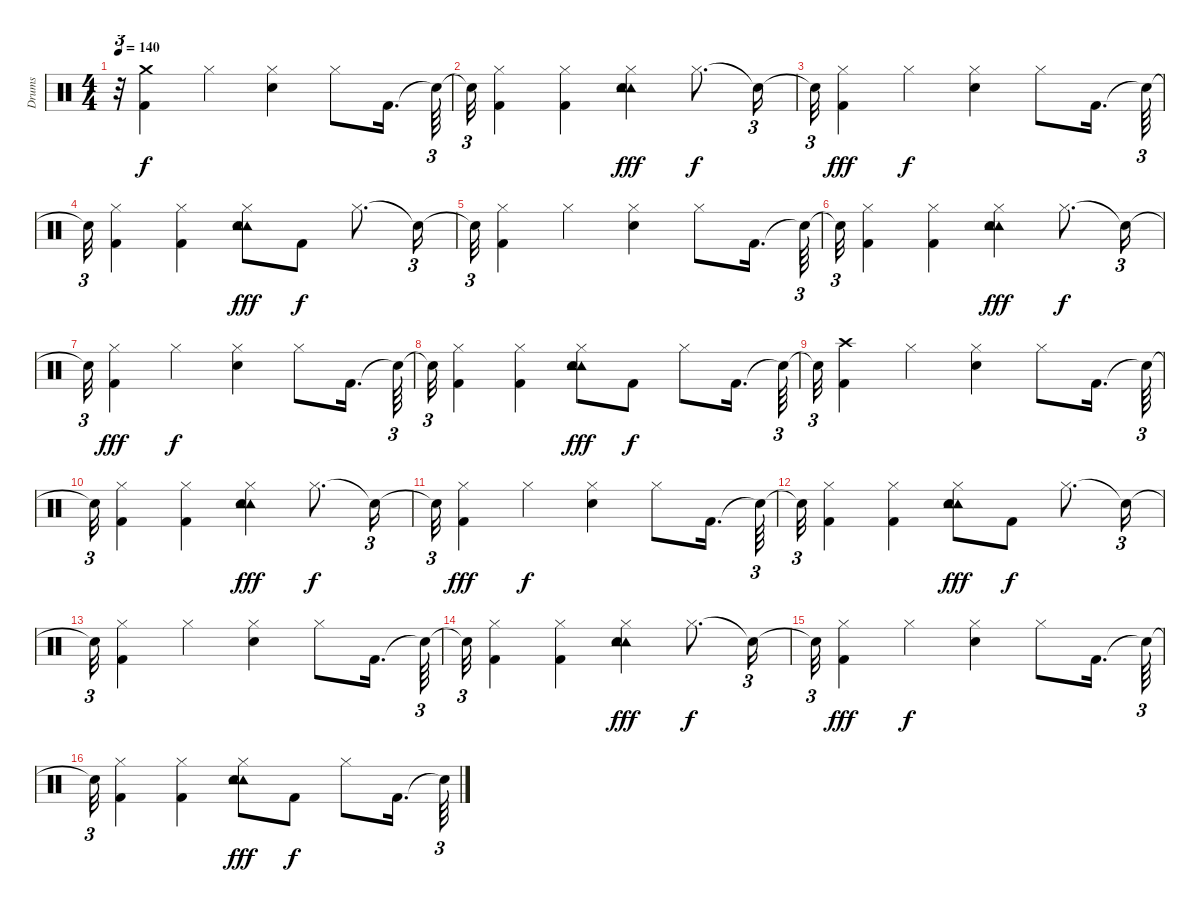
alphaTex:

\track ("Drums" "Drums") {instrument percussion}
\staff {score}
\articulation defaults
\ts (4 4)
\tempo 140
\clef neutral
\ks c
r.32{tu (3 2) dy f} ("Crash medium (hit)" "Kick (hit) 2").4 "Hi-Hat (closed)".4 ("Hi-Hat (closed)" "Snare (hit) 2").4 "Hi-Hat (closed)".8 "Kick (hit) 2".16{d} "Snare (hit)"{t}.64{tu (3 2)} |
"Snare (hit)"{t}.32{tu (3 2)} ("Kick (hit) 2" "Hi-Hat (closed)").4 ("Kick (hit) 2" "Hi-Hat (closed)").4 ("Tambourine (hit)" "Tambourine (hit)" "Snare (hit) 2" "Hi-Hat (closed)").4{dy fff} "Hi-Hat (closed)".8{d dy f} "Snare (hit)"{t}.16{tu (3 2)} |
"Snare (hit)"{t}.32{tu (3 2)} ("Hi-Hat (closed)" "Kick (hit) 2").4{dy fff} "Hi-Hat (closed)".4{dy f} ("Hi-Hat (closed)" "Snare (hit) 2").4 "Hi-Hat (closed)".8 "Kick (hit) 2".16{d} "Snare (hit)"{t}.64{tu (3 2)} |
"Snare (hit)"{t}.32{tu (3 2)} ("Kick (hit) 2" "Hi-Hat (closed)").4 ("Kick (hit) 2" "Hi-Hat (closed)").4 ("Tambourine (hit)" "Tambourine (hit)" "Snare (hit) 2" "Hi-Hat (closed)").8{dy fff} "Kick (hit) 2".8{dy f} "Hi-Hat (closed)".8{d} "Snare (hit)"{t}.16{tu (3 2)} |
"Snare (hit)"{t}.32{tu (3 2)} ("Hi-Hat (closed)" "Kick (hit) 2").4 "Hi-Hat (closed)".4 ("Hi-Hat (closed)" "Snare (hit) 2").4 "Hi-Hat (closed)".8 "Kick (hit) 2".16{d} "Snare (hit)"{t}.64{tu (3 2)} |
"Snare (hit)"{t}.32{tu (3 2)} ("Kick (hit) 2" "Hi-Hat (closed)").4 ("Kick (hit) 2" "Hi-Hat (closed)").4 ("Tambourine (hit)" "Snare (hit) 2" "Tambourine (hit)" "Hi-Hat (closed)").4{dy fff} "Hi-Hat (closed)".8{d dy f} "Snare (hit)"{t}.16{tu (3 2)} |
"Snare (hit)"{t}.32{tu (3 2)} ("Hi-Hat (closed)" "Kick (hit) 2").4{dy fff} "Hi-Hat (closed)".4{dy f} ("Snare (hit) 2" "Hi-Hat (closed)").4 "Hi-Hat (closed)".8 "Kick (hit) 2".16{d} "Snare (hit)"{t}.64{tu (3 2)} |
"Snare (hit)"{t}.32{tu (3 2)} ("Kick (hit) 2" "Hi-Hat (closed)").4 ("Hi-Hat (closed)" "Kick (hit) 2").4 ("Tambourine (hit)" "Hi-Hat (closed)" "Tambourine (hit)" "Snare (hit) 2").8{dy fff} "Kick (hit) 2".8{dy f} "Hi-Hat (closed)".8 "Kick (hit) 2".16{d} "Snare (hit)"{t}.64{tu (3 2)} |
"Snare (hit)"{t}.32{tu (3 2)} ("Kick (hit) 2" "Crash high (hit)").4 "Hi-Hat (closed)".4 ("Hi-Hat (closed)" "Snare (hit) 2").4 "Hi-Hat (closed)".8 "Kick (hit) 2".16{d} "Snare (hit)"{t}.64{tu (3 2)} |
"Snare (hit)"{t}.32{tu (3 2)} ("Kick (hit) 2" "Hi-Hat (closed)").4 ("Hi-Hat (closed)" "Kick (hit) 2").4 ("Tambourine (hit)" "Tambourine (hit)" "Hi-Hat (closed)" "Snare (hit) 2").4{dy fff} "Hi-Hat (closed)".8{d dy f} "Snare (hit)"{t}.16{tu (3 2)} |
"Snare (hit)"{t}.32{tu (3 2)} ("Hi-Hat (closed)" "Kick (hit) 2").4{dy fff} "Hi-Hat (closed)".4{dy f} ("Hi-Hat (closed)" "Snare (hit) 2").4 "Hi-Hat (closed)".8 "Kick (hit) 2".16{d} "Snare (hit)"{t}.64{tu (3 2)} |
"Snare (hit)"{t}.32{tu (3 2)} ("Hi-Hat (closed)" "Kick (hit) 2").4 ("Kick (hit) 2" "Hi-Hat (closed)").4 ("Tambourine (hit)" "Snare (hit) 2" "Hi-Hat (closed)" "Tambourine (hit)").8{dy fff} "Kick (hit) 2".8{dy f} "Hi-Hat (closed)".8{d} "Snare (hit)"{t}.16{tu (3 2)} |
"Snare (hit)"{t}.32{tu (3 2)} ("Kick (hit) 2" "Hi-Hat (closed)").4 "Hi-Hat (closed)".4 ("Hi-Hat (closed)" "Snare (hit) 2").4 "Hi-Hat (closed)".8 "Kick (hit) 2".16{d} "Snare (hit)"{t}.64{tu (3 2)} |
"Snare (hit)"{t}.32{tu (3 2)} ("Kick (hit) 2" "Hi-Hat (closed)").4 ("Kick (hit) 2" "Hi-Hat (closed)").4 ("Hi-Hat (closed)" "Tambourine (hit)" "Snare (hit) 2" "Tambourine (hit)").4{dy fff} "Hi-Hat (closed)".8{d dy f} "Snare (hit)"{t}.16{tu (3 2)} |
"Snare (hit)"{t}.32{tu (3 2)} ("Hi-Hat (closed)" "Kick (hit) 2").4{dy fff} "Hi-Hat (closed)".4{dy f} ("Hi-Hat (closed)" "Snare (hit) 2").4 "Hi-Hat (closed)".8 "Kick (hit) 2".16{d} "Snare (hit)"{t}.64{tu (3 2)} |
"Snare (hit)"{t}.32{tu (3 2)} ("Kick (hit) 2" "Hi-Hat (closed)").4 ("Hi-Hat (closed)" "Kick (hit) 2").4 ("Tambourine (hit)" "Tambourine (hit)" "Hi-Hat (closed)" "Snare (hit) 2").8{dy fff} "Kick (hit) 2".8{dy f} "Hi-Hat (closed)".8 "Kick (hit) 2".16{d} "Snare (hit)"{t}.64{tu (3 2)}
